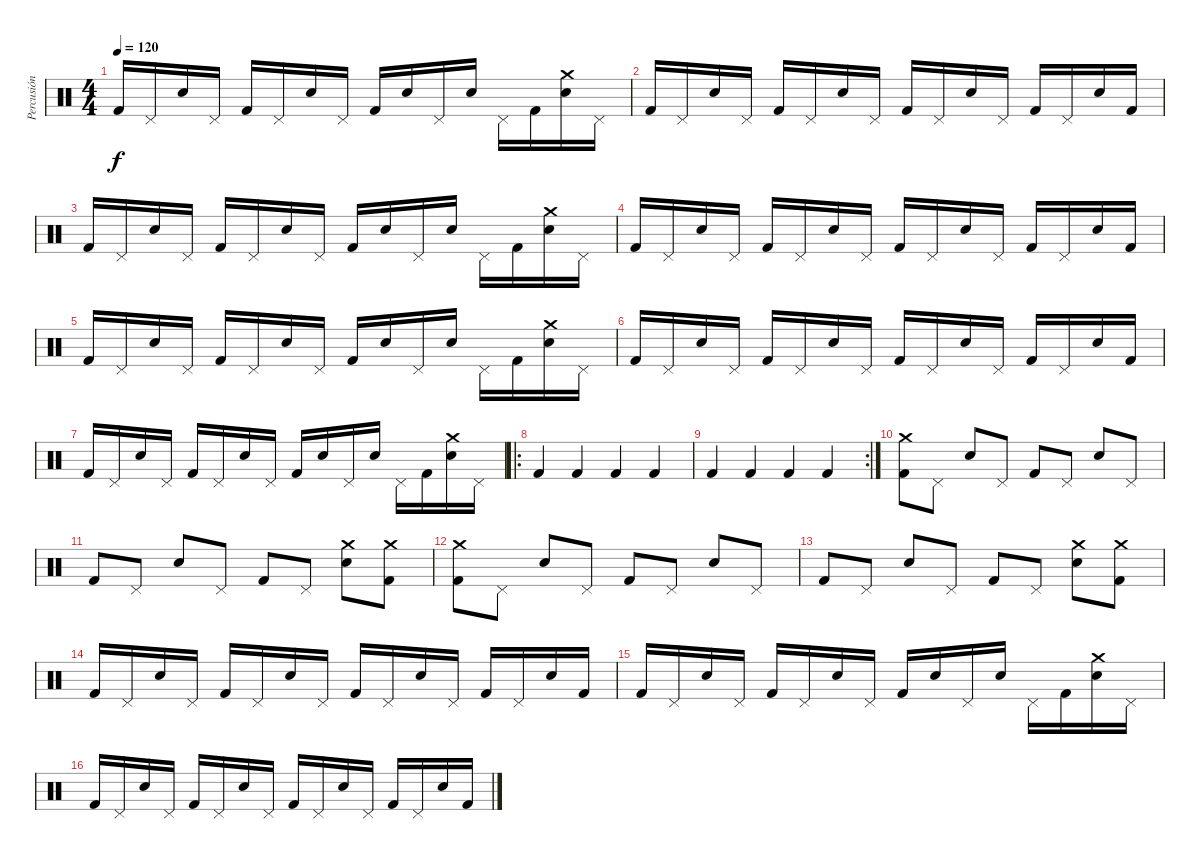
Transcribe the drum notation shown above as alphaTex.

\track ("Percusión" "Percusión") {instrument percussion}
\staff {score}
\articulation defaults
\ts (4 4)
\tempo 120
\clef neutral
\ks c "Kick (hit) 2".16{dy f} "Pedal Hi-Hat (hit)".16 "Snare (hit) 2".16 "Pedal Hi-Hat (hit)".16 "Kick (hit) 2".16 "Pedal Hi-Hat (hit)".16 "Snare (hit) 2".16 "Pedal Hi-Hat (hit)".16 "Kick (hit) 2".16 "Snare (hit) 2".16 "Pedal Hi-Hat (hit)".16 "Snare (hit) 2".16 "Pedal Hi-Hat (hit)".16 "Kick (hit) 2".16
("Snare (hit) 2" "Crash medium (hit)").16 "Pedal Hi-Hat (hit)".16 |
"Kick (hit) 2".16 "Pedal Hi-Hat (hit)".16 "Snare (hit) 2".16 "Pedal Hi-Hat (hit)".16 "Kick (hit) 2".16 "Pedal Hi-Hat (hit)".16 "Snare (hit) 2".16 "Pedal Hi-Hat (hit)".16 "Kick (hit) 2".16 "Pedal Hi-Hat (hit)".16 "Snare (hit) 2".16 "Pedal Hi-Hat (hit)".16 "Kick (hit) 2".16 "Pedal Hi-Hat (hit)".16 "Snare (hit) 2".16 "Kick (hit) 2".16 |
"Kick (hit) 2".16 "Pedal Hi-Hat (hit)".16 "Snare (hit) 2".16 "Pedal Hi-Hat (hit)".16 "Kick (hit) 2".16 "Pedal Hi-Hat (hit)".16 "Snare (hit) 2".16 "Pedal Hi-Hat (hit)".16 "Kick (hit) 2".16 "Snare (hit) 2".16 "Pedal Hi-Hat (hit)".16 "Snare (hit) 2".16 "Pedal Hi-Hat (hit)".16 "Kick (hit) 2".16 ("Snare (hit) 2" "Crash medium (hit)").16 "Pedal Hi-Hat (hit)".16 |
"Kick (hit) 2".16 "Pedal Hi-Hat (hit)".16 "Snare (hit) 2".16 "Pedal Hi-Hat (hit)".16 "Kick (hit) 2".16 "Pedal Hi-Hat (hit)".16 "Snare (hit) 2".16 "Pedal Hi-Hat (hit)".16 "Kick (hit) 2".16 "Pedal Hi-Hat (hit)".16 "Snare (hit) 2".16 "Pedal Hi-Hat (hit)".16 "Kick (hit) 2".16 "Pedal Hi-Hat (hit)".16 "Snare (hit) 2".16 "Kick (hit) 2".16 |
"Kick (hit) 2".16 "Pedal Hi-Hat (hit)".16 "Snare (hit) 2".16 "Pedal Hi-Hat (hit)".16 "Kick (hit) 2".16 "Pedal Hi-Hat (hit)".16 "Snare (hit) 2".16 "Pedal Hi-Hat (hit)".16 "Kick (hit) 2".16 "Snare (hit) 2".16 "Pedal Hi-Hat (hit)".16 "Snare (hit) 2".16 "Pedal Hi-Hat (hit)".16 "Kick (hit) 2".16 ("Snare (hit) 2" "Crash medium (hit)").16 "Pedal Hi-Hat (hit)".16 |
"Kick (hit) 2".16 "Pedal Hi-Hat (hit)".16 "Snare (hit) 2".16 "Pedal Hi-Hat (hit)".16 "Kick (hit) 2".16 "Pedal Hi-Hat (hit)".16 "Snare (hit) 2".16 "Pedal Hi-Hat (hit)".16 "Kick (hit) 2".16 "Pedal Hi-Hat (hit)".16 "Snare (hit) 2".16 "Pedal Hi-Hat (hit)".16 "Kick (hit) 2".16 "Pedal Hi-Hat (hit)".16 "Snare (hit) 2".16 "Kick (hit) 2".16 |
"Kick (hit) 2".16 "Pedal Hi-Hat (hit)".16 "Snare (hit) 2".16 "Pedal Hi-Hat (hit)".16 "Kick (hit) 2".16 "Pedal Hi-Hat (hit)".16 "Snare (hit) 2".16 "Pedal Hi-Hat (hit)".16 "Kick (hit) 2".16 "Snare (hit) 2".16 "Pedal Hi-Hat (hit)".16 "Snare (hit) 2".16 "Pedal Hi-Hat (hit)".16 "Kick (hit) 2".16 ("Snare (hit) 2" "Crash medium (hit)").16 "Pedal Hi-Hat (hit)".16 |
\ro "Kick (hit) 2".4 "Kick (hit) 2".4 "Kick (hit) 2".4 "Kick (hit) 2".4
|
\rc 2 "Kick (hit) 2".4 "Kick (hit) 2".4 "Kick (hit) 2".4 "Kick (hit) 2".4
|
("Kick (hit) 2" "Crash medium (hit)").8 "Pedal Hi-Hat (hit)".8 "Snare (hit) 2".8 "Pedal Hi-Hat (hit)".8 "Kick (hit) 2".8 "Pedal Hi-Hat (hit)".8 "Snare (hit) 2".8 "Pedal Hi-Hat (hit)".8 |
"Kick (hit) 2".8 "Pedal Hi-Hat (hit)".8 "Snare (hit) 2".8 "Pedal Hi-Hat (hit)".8 "Kick (hit) 2".8 "Pedal Hi-Hat (hit)".8 ("Snare (hit) 2" "Crash medium (hit)").8 ("Kick (hit) 2" "Crash medium (hit)").8 |
("Kick (hit) 2" "Crash medium (hit)").8 "Pedal Hi-Hat (hit)".8 "Snare (hit) 2".8 "Pedal Hi-Hat (hit)".8 "Kick (hit) 2".8 "Pedal Hi-Hat (hit)".8 "Snare (hit) 2".8 "Pedal Hi-Hat (hit)".8 |
"Kick (hit) 2".8 "Pedal Hi-Hat (hit)".8 "Snare (hit) 2".8 "Pedal Hi-Hat (hit)".8 "Kick (hit) 2".8 "Pedal Hi-Hat (hit)".8 ("Snare (hit) 2" "Crash medium (hit)").8 ("Kick (hit) 2" "Crash medium (hit)").8 |
"Kick (hit) 2".16 "Pedal Hi-Hat (hit)".16 "Snare (hit) 2".16 "Pedal Hi-Hat (hit)".16 "Kick (hit) 2".16 "Pedal Hi-Hat (hit)".16 "Snare (hit) 2".16 "Pedal Hi-Hat (hit)".16 "Kick (hit) 2".16 "Pedal Hi-Hat (hit)".16 "Snare (hit) 2".16 "Pedal Hi-Hat (hit)".16 "Kick (hit) 2".16 "Pedal Hi-Hat (hit)".16 "Snare (hit) 2".16 "Kick (hit) 2".16 |
"Kick (hit) 2".16 "Pedal Hi-Hat (hit)".16 "Snare (hit) 2".16 "Pedal Hi-Hat (hit)".16 "Kick (hit) 2".16 "Pedal Hi-Hat (hit)".16 "Snare (hit) 2".16 "Pedal Hi-Hat (hit)".16 "Kick (hit) 2".16 "Snare (hit) 2".16 "Pedal Hi-Hat (hit)".16 "Snare (hit) 2".16 "Pedal Hi-Hat (hit)".16 "Kick (hit) 2".16 ("Snare (hit) 2" "Crash medium (hit)").16 "Pedal Hi-Hat (hit)".16 |
"Kick (hit) 2".16 "Pedal Hi-Hat (hit)".16 "Snare (hit) 2".16 "Pedal Hi-Hat (hit)".16 "Kick (hit) 2".16 "Pedal Hi-Hat (hit)".16 "Snare (hit) 2".16 "Pedal Hi-Hat (hit)".16 "Kick (hit) 2".16 "Pedal Hi-Hat (hit)".16 "Snare (hit) 2".16 "Pedal Hi-Hat (hit)".16 "Kick (hit) 2".16 "Pedal Hi-Hat (hit)".16 "Snare (hit) 2".16 "Kick (hit) 2".16
